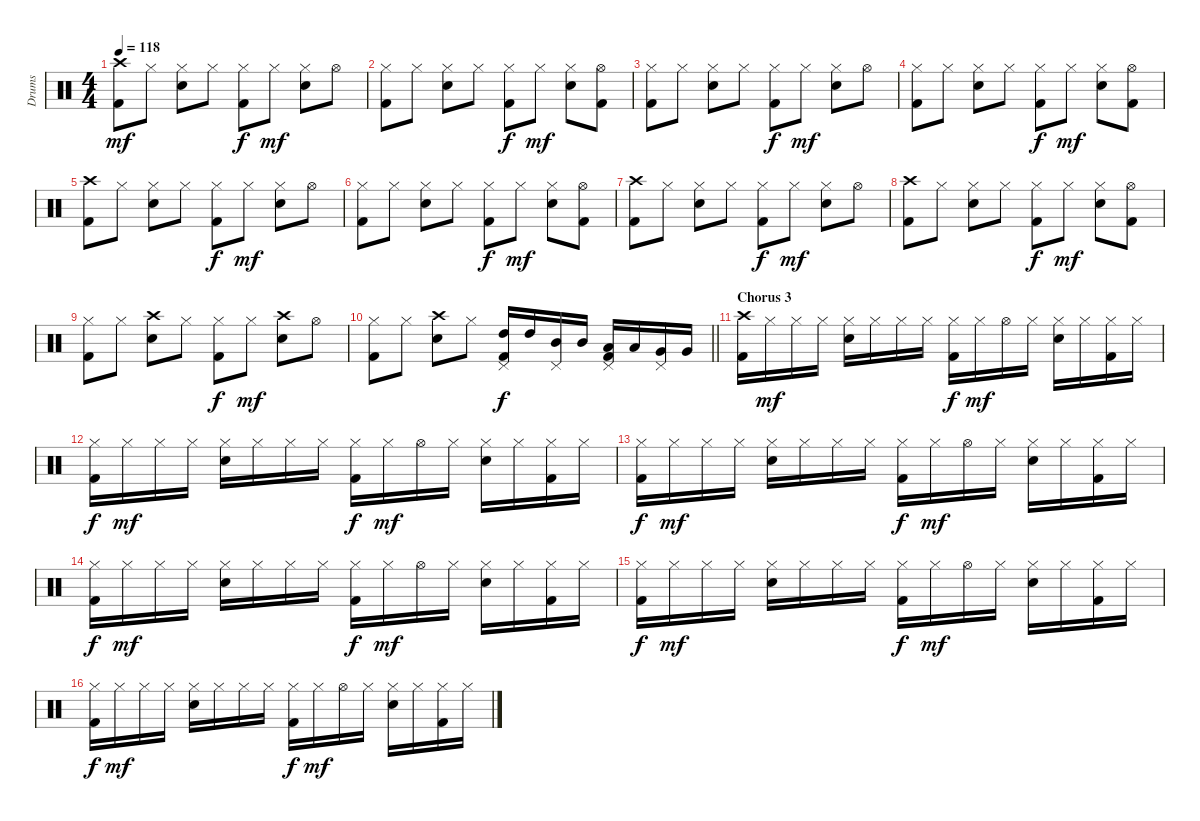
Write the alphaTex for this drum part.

\track ("Drums" "Drums") {instrument percussion}
\staff {score}
\articulation defaults
\ts (4 4)
\tempo 118
\clef neutral
\ks c
("Crash high (hit)" "Kick (hit) 2").8{dy mf} "Hi-Hat (closed)".8 ("Hi-Hat (closed)" "Snare (hit) 2").8 "Hi-Hat (closed)".8 ("Hi-Hat (closed)" "Kick (hit) 2").8{dy f} "Hi-Hat (closed)".8{dy mf} ("Hi-Hat (closed)" "Snare (hit) 2").8 "Hi-Hat (open)".8 |
("Hi-Hat (closed)" "Kick (hit) 2").8 "Hi-Hat (closed)".8 ("Hi-Hat (closed)" "Snare (hit) 2").8 "Hi-Hat (closed)".8 ("Hi-Hat (closed)" "Kick (hit) 2").8{dy f} "Hi-Hat (closed)".8{dy mf} ("Hi-Hat (closed)" "Snare (hit) 2").8 ("Hi-Hat (open)" "Kick (hit) 2").8 |
("Hi-Hat (closed)" "Kick (hit) 2").8 "Hi-Hat (closed)".8 ("Hi-Hat (closed)" "Snare (hit) 2").8 "Hi-Hat (closed)".8 ("Hi-Hat (closed)" "Kick (hit) 2").8{dy f} "Hi-Hat (closed)".8{dy mf} ("Hi-Hat (closed)" "Snare (hit) 2").8 "Hi-Hat (open)".8 |
("Hi-Hat (closed)" "Kick (hit) 2").8 "Hi-Hat (closed)".8 ("Hi-Hat (closed)" "Snare (hit) 2").8 "Hi-Hat (closed)".8 ("Hi-Hat (closed)" "Kick (hit) 2").8{dy f} "Hi-Hat (closed)".8{dy mf} ("Hi-Hat (closed)" "Snare (hit) 2").8 ("Hi-Hat (open)" "Kick (hit) 2").8 |
("Crash high (hit)" "Kick (hit) 2").8 "Hi-Hat (closed)".8 ("Hi-Hat (closed)" "Snare (hit) 2").8 "Hi-Hat (closed)".8 ("Hi-Hat (closed)" "Kick (hit) 2").8{dy f} "Hi-Hat (closed)".8{dy mf} ("Hi-Hat (closed)" "Snare (hit) 2").8 "Hi-Hat (open)".8 |
("Hi-Hat (closed)" "Kick (hit) 2").8 "Hi-Hat (closed)".8 ("Hi-Hat (closed)" "Snare (hit) 2").8 "Hi-Hat (closed)".8 ("Hi-Hat (closed)" "Kick (hit) 2").8{dy f} "Hi-Hat (closed)".8{dy mf} ("Hi-Hat (closed)" "Snare (hit) 2").8 ("Hi-Hat (open)" "Kick (hit) 2").8 |
("Crash high (hit)" "Kick (hit) 2").8 "Hi-Hat (closed)".8 ("Hi-Hat (closed)" "Snare (hit) 2").8 "Hi-Hat (closed)".8 ("Hi-Hat (closed)" "Kick (hit) 2").8{dy f} "Hi-Hat (closed)".8{dy mf} ("Hi-Hat (closed)" "Snare (hit) 2").8 "Hi-Hat (open)".8 |
("Crash high (hit)" "Kick (hit) 2").8 "Hi-Hat (closed)".8 ("Hi-Hat (closed)" "Snare (hit) 2").8 "Hi-Hat (closed)".8 ("Hi-Hat (closed)" "Kick (hit) 2").8{dy f} "Hi-Hat (closed)".8{dy mf} ("Hi-Hat (closed)" "Snare (hit) 2").8 ("Hi-Hat (open)" "Kick (hit) 2").8 |
("Hi-Hat (closed)" "Kick (hit) 2").8 "Hi-Hat (closed)".8 ("Crash high (hit)" "Snare (hit) 2").8 "Hi-Hat (closed)".8 ("Hi-Hat (closed)" "Kick (hit) 2").8{dy f} "Hi-Hat (closed)".8{dy mf} ("Crash high (hit)" "Snare (hit) 2").8 "Hi-Hat (open)".8 |
\barLineRight lightlight
("Hi-Hat (closed)" "Kick (hit) 2").8 "Hi-Hat (closed)".8 ("Crash high (hit)" "Snare (hit) 2").8 "Hi-Hat (closed)".8 ("Pedal Hi-Hat (hit)" "High Tom (hit)" "Kick (hit) 2").16{dy f} "High Tom (hit)".16 ("Pedal Hi-Hat (hit)" "Mid Tom (hit)").16 "Mid Tom (hit)".16 ("Pedal Hi-Hat (hit)" "Low Tom (hit)" "Kick (hit) 2").16 "Low Tom (hit)".16 ("Pedal Hi-Hat (hit)" "Very Low Tom (hit)").16 "Very Low Tom (hit)".16 |
\section ("" "Chorus 3")
("Crash high (hit)" "Kick (hit) 2").16 "Hi-Hat (closed)".16{dy mf} "Hi-Hat (closed)".16 "Hi-Hat (closed)".16 ("Hi-Hat (closed)" "Snare (hit) 2").16 "Hi-Hat (closed)".16 "Hi-Hat (closed)".16 "Hi-Hat (closed)".16 ("Hi-Hat (closed)" "Kick (hit) 2").16{dy f} "Hi-Hat (closed)".16{dy mf} "Hi-Hat (open)".16 "Hi-Hat (closed)".16 ("Hi-Hat (closed)" "Snare (hit) 2").16 "Hi-Hat (closed)".16 ("Hi-Hat (closed)" "Kick (hit) 2").16 "Hi-Hat (closed)".16 |
("Hi-Hat (closed)" "Kick (hit) 2").16{dy f} "Hi-Hat (closed)".16{dy mf} "Hi-Hat (closed)".16 "Hi-Hat (closed)".16 ("Hi-Hat (closed)" "Snare (hit) 2").16 "Hi-Hat (closed)".16 "Hi-Hat (closed)".16 "Hi-Hat (closed)".16 ("Hi-Hat (closed)" "Kick (hit) 2").16{dy f} "Hi-Hat (closed)".16{dy mf} "Hi-Hat (open)".16 "Hi-Hat (closed)".16 ("Hi-Hat (closed)" "Snare (hit) 2").16 "Hi-Hat (closed)".16 ("Hi-Hat (closed)" "Kick (hit) 2").16 "Hi-Hat (closed)".16 |
("Hi-Hat (closed)" "Kick (hit) 2").16{dy f} "Hi-Hat (closed)".16{dy mf} "Hi-Hat (closed)".16 "Hi-Hat (closed)".16 ("Hi-Hat (closed)" "Snare (hit) 2").16 "Hi-Hat (closed)".16 "Hi-Hat (closed)".16 "Hi-Hat (closed)".16 ("Hi-Hat (closed)" "Kick (hit) 2").16{dy f} "Hi-Hat (closed)".16{dy mf} "Hi-Hat (open)".16 "Hi-Hat (closed)".16 ("Hi-Hat (closed)" "Snare (hit) 2").16 "Hi-Hat (closed)".16 ("Hi-Hat (closed)" "Kick (hit) 2").16 "Hi-Hat (closed)".16 |
("Hi-Hat (closed)" "Kick (hit) 2").16{dy f} "Hi-Hat (closed)".16{dy mf} "Hi-Hat (closed)".16 "Hi-Hat (closed)".16 ("Hi-Hat (closed)" "Snare (hit) 2").16 "Hi-Hat (closed)".16 "Hi-Hat (closed)".16 "Hi-Hat (closed)".16 ("Hi-Hat (closed)" "Kick (hit) 2").16{dy f} "Hi-Hat (closed)".16{dy mf} "Hi-Hat (open)".16 "Hi-Hat (closed)".16 ("Hi-Hat (closed)" "Snare (hit) 2").16 "Hi-Hat (closed)".16 ("Hi-Hat (closed)" "Kick (hit) 2").16 "Hi-Hat (closed)".16 |
("Hi-Hat (closed)" "Kick (hit) 2").16{dy f} "Hi-Hat (closed)".16{dy mf} "Hi-Hat (closed)".16 "Hi-Hat (closed)".16 ("Hi-Hat (closed)" "Snare (hit) 2").16 "Hi-Hat (closed)".16 "Hi-Hat (closed)".16 "Hi-Hat (closed)".16 ("Hi-Hat (closed)" "Kick (hit) 2").16{dy f} "Hi-Hat (closed)".16{dy mf} "Hi-Hat (open)".16 "Hi-Hat (closed)".16 ("Hi-Hat (closed)" "Snare (hit) 2").16 "Hi-Hat (closed)".16 ("Hi-Hat (closed)" "Kick (hit) 2").16 "Hi-Hat (closed)".16 |
("Hi-Hat (closed)" "Kick (hit) 2").16{dy f} "Hi-Hat (closed)".16{dy mf} "Hi-Hat (closed)".16 "Hi-Hat (closed)".16 ("Hi-Hat (closed)" "Snare (hit) 2").16 "Hi-Hat (closed)".16 "Hi-Hat (closed)".16 "Hi-Hat (closed)".16 ("Hi-Hat (closed)" "Kick (hit) 2").16{dy f} "Hi-Hat (closed)".16{dy mf} "Hi-Hat (open)".16 "Hi-Hat (closed)".16 ("Hi-Hat (closed)" "Snare (hit) 2").16 "Hi-Hat (closed)".16 ("Hi-Hat (closed)" "Kick (hit) 2").16 "Hi-Hat (closed)".16
